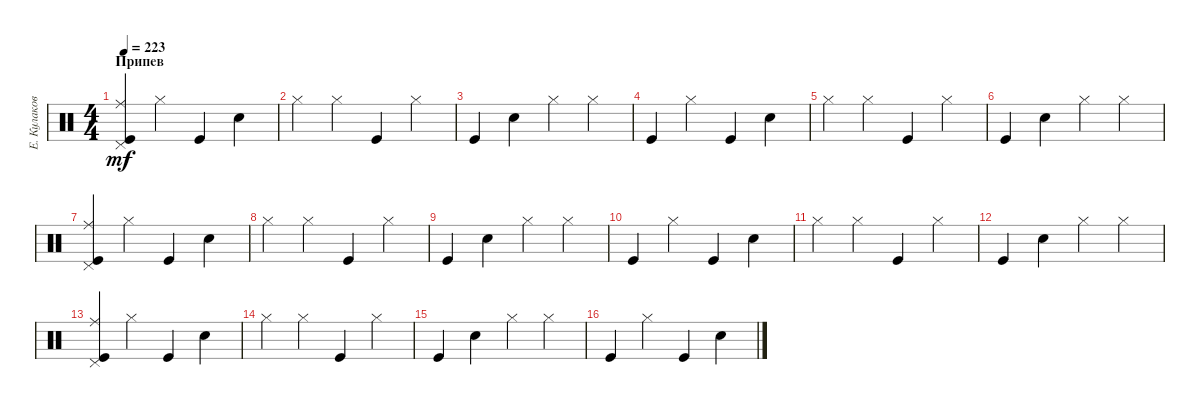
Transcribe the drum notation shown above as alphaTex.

\track ("Е. Кулаков" "Е. Кулаков") {instrument percussion}
\staff {score}
\articulation defaults
\ts (4 4)
\section ("" "Припев")
\tempo 223
\clef neutral
\ks c
("Kick (hit)" "Ride (middle)" "Pedal Hi-Hat (hit)").4{dy mf} "Hi-Hat (closed)".4 "Kick (hit)".4 "Snare (hit) 2".4 |
"Hi-Hat (closed)".4 "Hi-Hat (closed)".4 "Kick (hit)".4 "Hi-Hat (closed)".4 |
"Kick (hit)".4 "Snare (hit) 2".4 "Hi-Hat (closed)".4 "Hi-Hat (closed)".4 |
"Kick (hit)".4 "Hi-Hat (closed)".4 "Kick (hit)".4 "Snare (hit) 2".4 |
"Hi-Hat (closed)".4 "Hi-Hat (closed)".4 "Kick (hit)".4 "Hi-Hat (closed)".4 |
"Kick (hit)".4 "Snare (hit) 2".4 "Hi-Hat (closed)".4 "Hi-Hat (closed)".4 |
("Kick (hit)" "Ride (middle)" "Pedal Hi-Hat (hit)").4 "Hi-Hat (closed)".4 "Kick (hit)".4 "Snare (hit) 2".4 |
"Hi-Hat (closed)".4 "Hi-Hat (closed)".4 "Kick (hit)".4 "Hi-Hat (closed)".4 |
"Kick (hit)".4 "Snare (hit) 2".4 "Hi-Hat (closed)".4 "Hi-Hat (closed)".4 |
"Kick (hit)".4 "Hi-Hat (closed)".4 "Kick (hit)".4 "Snare (hit) 2".4 |
"Hi-Hat (closed)".4 "Hi-Hat (closed)".4 "Kick (hit)".4 "Hi-Hat (closed)".4 |
"Kick (hit)".4 "Snare (hit) 2".4 "Hi-Hat (closed)".4 "Hi-Hat (closed)".4 |
("Kick (hit)" "Ride (middle)" "Pedal Hi-Hat (hit)").4 "Hi-Hat (closed)".4 "Kick (hit)".4 "Snare (hit) 2".4 |
"Hi-Hat (closed)".4 "Hi-Hat (closed)".4 "Kick (hit)".4 "Hi-Hat (closed)".4 |
"Kick (hit)".4 "Snare (hit) 2".4 "Hi-Hat (closed)".4 "Hi-Hat (closed)".4 |
"Kick (hit)".4 "Hi-Hat (closed)".4 "Kick (hit)".4 "Snare (hit) 2".4
